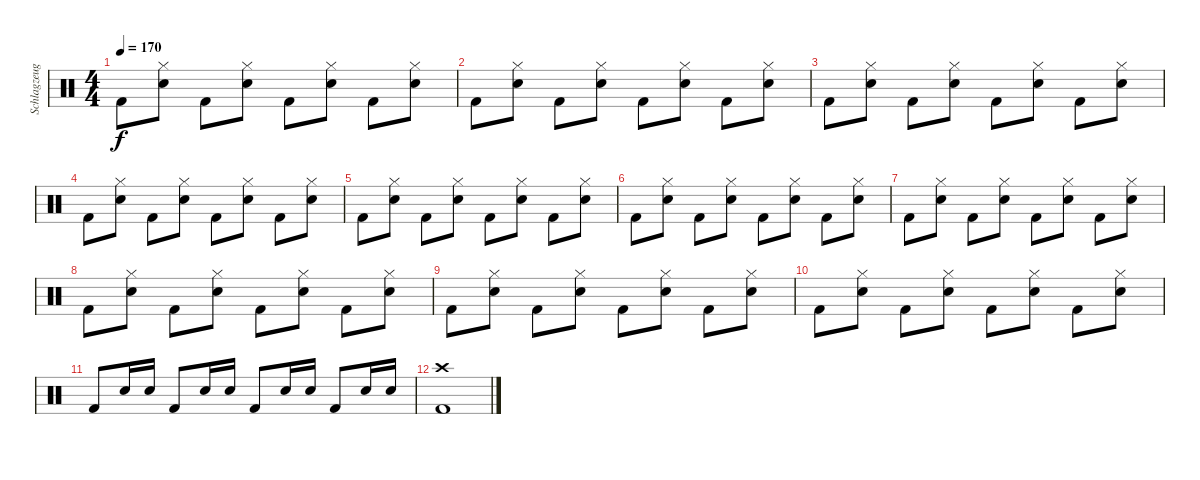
\track ("Schlagzeug (Bela)" "Schlagzeug") {instrument percussion}
\staff {score}
\articulation defaults
\ts (4 4)
\tempo 170
\clef neutral
\ks c "Kick (hit) 2".8{dy f}
("Hi-Hat (closed)" "Snare (hit) 2").8 "Kick (hit) 2".8 ("Hi-Hat (closed)" "Snare (hit) 2").8 "Kick (hit) 2".8 ("Hi-Hat (closed)" "Snare (hit) 2").8 "Kick (hit) 2".8 ("Hi-Hat (closed)" "Snare (hit) 2").8 |
"Kick (hit) 2".8 ("Hi-Hat (closed)" "Snare (hit) 2").8 "Kick (hit) 2".8 ("Hi-Hat (closed)" "Snare (hit) 2").8 "Kick (hit) 2".8 ("Hi-Hat (closed)" "Snare (hit) 2").8 "Kick (hit) 2".8 ("Hi-Hat (closed)" "Snare (hit) 2").8 |
"Kick (hit) 2".8 ("Hi-Hat (closed)" "Snare (hit) 2").8 "Kick (hit) 2".8 ("Hi-Hat (closed)" "Snare (hit) 2").8 "Kick (hit) 2".8 ("Hi-Hat (closed)" "Snare (hit) 2").8 "Kick (hit) 2".8 ("Hi-Hat (closed)" "Snare (hit) 2").8 |
"Kick (hit) 2".8 ("Hi-Hat (closed)" "Snare (hit) 2").8 "Kick (hit) 2".8 ("Hi-Hat (closed)" "Snare (hit) 2").8 "Kick (hit) 2".8 ("Hi-Hat (closed)" "Snare (hit) 2").8 "Kick (hit) 2".8 ("Hi-Hat (closed)" "Snare (hit) 2").8 |
"Kick (hit) 2".8 ("Hi-Hat (closed)" "Snare (hit) 2").8 "Kick (hit) 2".8 ("Hi-Hat (closed)" "Snare (hit) 2").8 "Kick (hit) 2".8 ("Hi-Hat (closed)" "Snare (hit) 2").8 "Kick (hit) 2".8 ("Hi-Hat (closed)" "Snare (hit) 2").8 |
"Kick (hit) 2".8 ("Hi-Hat (closed)" "Snare (hit) 2").8 "Kick (hit) 2".8 ("Hi-Hat (closed)" "Snare (hit) 2").8 "Kick (hit) 2".8 ("Hi-Hat (closed)" "Snare (hit) 2").8 "Kick (hit) 2".8 ("Hi-Hat (closed)" "Snare (hit) 2").8 |
"Kick (hit) 2".8 ("Hi-Hat (closed)" "Snare (hit) 2").8 "Kick (hit) 2".8 ("Hi-Hat (closed)" "Snare (hit) 2").8 "Kick (hit) 2".8 ("Hi-Hat (closed)" "Snare (hit) 2").8 "Kick (hit) 2".8 ("Hi-Hat (closed)" "Snare (hit) 2").8 |
"Kick (hit) 2".8 ("Hi-Hat (closed)" "Snare (hit) 2").8 "Kick (hit) 2".8 ("Hi-Hat (closed)" "Snare (hit) 2").8 "Kick (hit) 2".8 ("Hi-Hat (closed)" "Snare (hit) 2").8 "Kick (hit) 2".8 ("Hi-Hat (closed)" "Snare (hit) 2").8 |
"Kick (hit) 2".8 ("Hi-Hat (closed)" "Snare (hit) 2").8 "Kick (hit) 2".8 ("Hi-Hat (closed)" "Snare (hit) 2").8 "Kick (hit) 2".8 ("Hi-Hat (closed)" "Snare (hit) 2").8 "Kick (hit) 2".8 ("Hi-Hat (closed)" "Snare (hit) 2").8 |
"Kick (hit) 2".8 ("Hi-Hat (closed)" "Snare (hit) 2").8 "Kick (hit) 2".8 ("Hi-Hat (closed)" "Snare (hit) 2").8 "Kick (hit) 2".8 ("Hi-Hat (closed)" "Snare (hit) 2").8 "Kick (hit) 2".8 ("Hi-Hat (closed)" "Snare (hit) 2").8 |
"Kick (hit) 2".8 "Snare (hit) 2".16 "Snare (hit) 2".16 "Kick (hit) 2".8 "Snare (hit) 2".16 "Snare (hit) 2".16 "Kick (hit) 2".8 "Snare (hit) 2".16 "Snare (hit) 2".16 "Kick (hit) 2".8 "Snare (hit) 2".16 "Snare (hit) 2".16 |
("Kick (hit) 2" "Crash high (hit)").1
